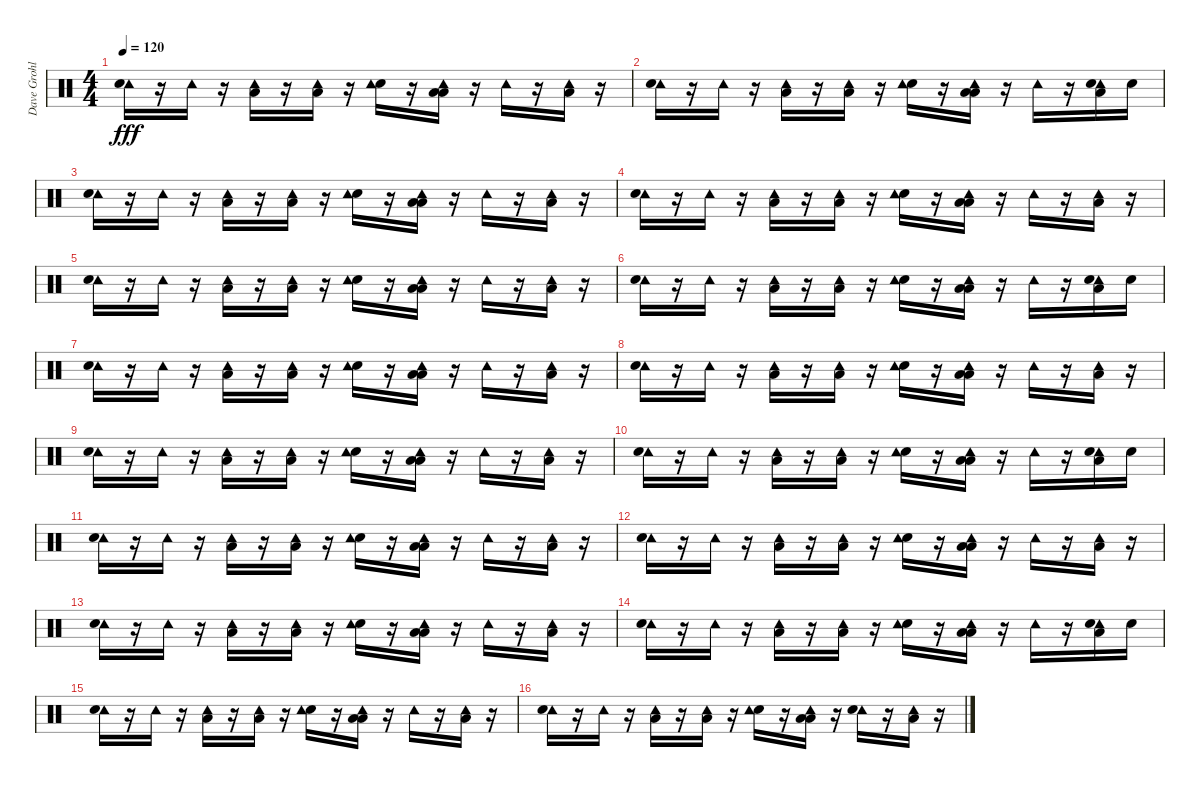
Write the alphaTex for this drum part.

\track ("Dave Grohl " "Dave Grohl") {instrument percussion}
\staff {score}
\articulation defaults
\ts (4 4)
\tempo 120
\clef neutral
\ks c
("Tambourine (hit)" "Snare (hit) 2").16{dy fff} r.16 "Tambourine (hit)".16 r.16 ("Low Floor Tom (hit)" "Tambourine (hit)").16 r.16 ("Low Floor Tom (hit)" "Tambourine (hit)").16 r.16 ("Snare (hit) 2" "Tambourine (hit)").16 r.16 ("Tambourine (hit)" "Low Floor Tom (hit)" "Low Tom (hit)").16 r.16 "Tambourine (hit)".16 r.16 ("Tambourine (hit)" "Low Floor Tom (hit)").16 r.16 |
("Tambourine (hit)" "Snare (hit) 2").16 r.16 "Tambourine (hit)".16 r.16 ("Low Floor Tom (hit)" "Tambourine (hit)").16 r.16 ("Low Floor Tom (hit)" "Tambourine (hit)").16 r.16 ("Snare (hit) 2" "Tambourine (hit)").16 r.16 ("Tambourine (hit)" "Low Floor Tom (hit)" "Low Tom (hit)").16 r.16 "Tambourine (hit)".16 r.16 ("Tambourine (hit)" "Low Floor Tom (hit)" "Snare (hit) 2").16 "Snare (hit) 2".16 |
("Tambourine (hit)" "Snare (hit) 2").16 r.16 "Tambourine (hit)".16 r.16 ("Low Floor Tom (hit)" "Tambourine (hit)").16 r.16 ("Low Floor Tom (hit)" "Tambourine (hit)").16 r.16 ("Snare (hit) 2" "Tambourine (hit)").16 r.16 ("Tambourine (hit)" "Low Floor Tom (hit)" "Low Tom (hit)").16 r.16 "Tambourine (hit)".16 r.16 ("Tambourine (hit)" "Low Floor Tom (hit)").16 r.16 |
("Tambourine (hit)" "Snare (hit) 2").16 r.16 "Tambourine (hit)".16 r.16 ("Low Floor Tom (hit)" "Tambourine (hit)").16 r.16 ("Low Floor Tom (hit)" "Tambourine (hit)").16 r.16 ("Snare (hit) 2" "Tambourine (hit)").16 r.16 ("Tambourine (hit)" "Low Floor Tom (hit)" "Low Tom (hit)").16 r.16 "Tambourine (hit)".16 r.16 ("Tambourine (hit)" "Low Floor Tom (hit)").16 r.16 |
("Tambourine (hit)" "Snare (hit) 2").16 r.16 "Tambourine (hit)".16 r.16 ("Low Floor Tom (hit)" "Tambourine (hit)").16 r.16 ("Low Floor Tom (hit)" "Tambourine (hit)").16 r.16 ("Snare (hit) 2" "Tambourine (hit)").16 r.16 ("Tambourine (hit)" "Low Floor Tom (hit)" "Low Tom (hit)").16 r.16 "Tambourine (hit)".16 r.16 ("Tambourine (hit)" "Low Floor Tom (hit)").16 r.16 |
("Tambourine (hit)" "Snare (hit) 2").16 r.16 "Tambourine (hit)".16 r.16 ("Low Floor Tom (hit)" "Tambourine (hit)").16 r.16 ("Low Floor Tom (hit)" "Tambourine (hit)").16 r.16 ("Snare (hit) 2" "Tambourine (hit)").16 r.16 ("Tambourine (hit)" "Low Floor Tom (hit)" "Low Tom (hit)").16 r.16 "Tambourine (hit)".16 r.16 ("Tambourine (hit)" "Low Floor Tom (hit)" "Snare (hit) 2").16 "Snare (hit) 2".16 |
("Tambourine (hit)" "Snare (hit) 2").16 r.16 "Tambourine (hit)".16 r.16 ("Low Floor Tom (hit)" "Tambourine (hit)").16 r.16 ("Low Floor Tom (hit)" "Tambourine (hit)").16 r.16 ("Snare (hit) 2" "Tambourine (hit)").16 r.16 ("Tambourine (hit)" "Low Floor Tom (hit)" "Low Tom (hit)").16 r.16 "Tambourine (hit)".16 r.16 ("Tambourine (hit)" "Low Floor Tom (hit)").16 r.16 |
("Tambourine (hit)" "Snare (hit) 2").16 r.16 "Tambourine (hit)".16 r.16 ("Low Floor Tom (hit)" "Tambourine (hit)").16 r.16 ("Low Floor Tom (hit)" "Tambourine (hit)").16 r.16 ("Snare (hit) 2" "Tambourine (hit)").16 r.16 ("Tambourine (hit)" "Low Floor Tom (hit)" "Low Tom (hit)").16 r.16 "Tambourine (hit)".16 r.16 ("Tambourine (hit)" "Low Floor Tom (hit)").16 r.16 |
("Tambourine (hit)" "Snare (hit) 2").16 r.16 "Tambourine (hit)".16 r.16 ("Low Floor Tom (hit)" "Tambourine (hit)").16 r.16 ("Low Floor Tom (hit)" "Tambourine (hit)").16 r.16 ("Snare (hit) 2" "Tambourine (hit)").16 r.16 ("Tambourine (hit)" "Low Floor Tom (hit)" "Low Tom (hit)").16 r.16 "Tambourine (hit)".16 r.16 ("Tambourine (hit)" "Low Floor Tom (hit)").16 r.16 |
("Tambourine (hit)" "Snare (hit) 2").16 r.16 "Tambourine (hit)".16 r.16 ("Low Floor Tom (hit)" "Tambourine (hit)").16 r.16 ("Low Floor Tom (hit)" "Tambourine (hit)").16 r.16 ("Snare (hit) 2" "Tambourine (hit)").16 r.16 ("Tambourine (hit)" "Low Floor Tom (hit)" "Low Tom (hit)").16 r.16 "Tambourine (hit)".16 r.16 ("Tambourine (hit)" "Low Floor Tom (hit)" "Snare (hit) 2").16 "Snare (hit) 2".16 |
("Tambourine (hit)" "Snare (hit) 2").16 r.16 "Tambourine (hit)".16 r.16 ("Low Floor Tom (hit)" "Tambourine (hit)").16 r.16 ("Low Floor Tom (hit)" "Tambourine (hit)").16 r.16 ("Snare (hit) 2" "Tambourine (hit)").16 r.16 ("Tambourine (hit)" "Low Floor Tom (hit)" "Low Tom (hit)").16 r.16 "Tambourine (hit)".16 r.16 ("Tambourine (hit)" "Low Floor Tom (hit)").16 r.16 |
("Tambourine (hit)" "Snare (hit) 2").16 r.16 "Tambourine (hit)".16 r.16 ("Low Floor Tom (hit)" "Tambourine (hit)").16 r.16 ("Low Floor Tom (hit)" "Tambourine (hit)").16 r.16 ("Snare (hit) 2" "Tambourine (hit)").16 r.16 ("Tambourine (hit)" "Low Floor Tom (hit)" "Low Tom (hit)").16 r.16 "Tambourine (hit)".16 r.16 ("Tambourine (hit)" "Low Floor Tom (hit)").16 r.16 |
("Tambourine (hit)" "Snare (hit) 2").16 r.16 "Tambourine (hit)".16 r.16 ("Low Floor Tom (hit)" "Tambourine (hit)").16 r.16 ("Low Floor Tom (hit)" "Tambourine (hit)").16 r.16 ("Snare (hit) 2" "Tambourine (hit)").16 r.16 ("Tambourine (hit)" "Low Floor Tom (hit)" "Low Tom (hit)").16 r.16 "Tambourine (hit)".16 r.16 ("Tambourine (hit)" "Low Floor Tom (hit)").16 r.16 |
("Tambourine (hit)" "Snare (hit) 2").16 r.16 "Tambourine (hit)".16 r.16 ("Low Floor Tom (hit)" "Tambourine (hit)").16 r.16 ("Low Floor Tom (hit)" "Tambourine (hit)").16 r.16 ("Snare (hit) 2" "Tambourine (hit)").16 r.16 ("Tambourine (hit)" "Low Floor Tom (hit)" "Low Tom (hit)").16 r.16 "Tambourine (hit)".16 r.16 ("Tambourine (hit)" "Low Floor Tom (hit)" "Snare (hit) 2").16 "Snare (hit) 2".16 |
("Tambourine (hit)" "Snare (hit) 2").16 r.16 "Tambourine (hit)".16 r.16 ("Low Floor Tom (hit)" "Tambourine (hit)").16 r.16 ("Low Floor Tom (hit)" "Tambourine (hit)").16 r.16 ("Snare (hit) 2" "Tambourine (hit)").16 r.16 ("Tambourine (hit)" "Low Floor Tom (hit)" "Low Tom (hit)").16 r.16 "Tambourine (hit)".16 r.16 ("Tambourine (hit)" "Low Floor Tom (hit)").16 r.16 |
("Tambourine (hit)" "Snare (hit) 2").16 r.16 "Tambourine (hit)".16 r.16 ("Low Floor Tom (hit)" "Tambourine (hit)").16 r.16 ("Low Floor Tom (hit)" "Tambourine (hit)").16 r.16 ("Snare (hit) 2" "Tambourine (hit)").16 r.16 ("Tambourine (hit)" "Low Floor Tom (hit)" "Low Tom (hit)").16 r.16 ("Tambourine (hit)" "Snare (hit) 2").16 r.16 ("Tambourine (hit)" "Low Floor Tom (hit)").16 r.16
